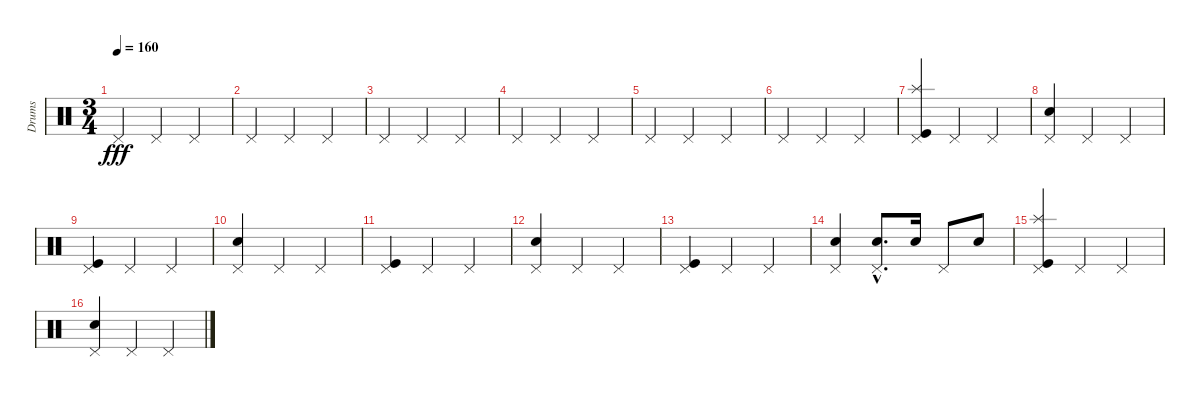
\track ("Drums" "Drums") {instrument percussion}
\staff {score}
\articulation defaults
\ts (3 4)
\tempo 160
\clef neutral
\ks c "Pedal Hi-Hat (hit)".4{dy fff} "Pedal Hi-Hat (hit)".4 "Pedal Hi-Hat (hit)".4
|
"Pedal Hi-Hat (hit)".4 "Pedal Hi-Hat (hit)".4 "Pedal Hi-Hat (hit)".4 |
"Pedal Hi-Hat (hit)".4 "Pedal Hi-Hat (hit)".4 "Pedal Hi-Hat (hit)".4 |
"Pedal Hi-Hat (hit)".4 "Pedal Hi-Hat (hit)".4 "Pedal Hi-Hat (hit)".4 |
"Pedal Hi-Hat (hit)".4 "Pedal Hi-Hat (hit)".4 "Pedal Hi-Hat (hit)".4 |
"Pedal Hi-Hat (hit)".4 "Pedal Hi-Hat (hit)".4 "Pedal Hi-Hat (hit)".4 |
("Splash (hit)" "Kick (hit)" "Pedal Hi-Hat (hit)").4 "Pedal Hi-Hat (hit)".4 "Pedal Hi-Hat (hit)".4 |
("Electric Snare (hit)" "Pedal Hi-Hat (hit)").4 "Pedal Hi-Hat (hit)".4 "Pedal Hi-Hat (hit)".4 |
("Kick (hit)" "Pedal Hi-Hat (hit)").4 "Pedal Hi-Hat (hit)".4 "Pedal Hi-Hat (hit)".4 |
("Electric Snare (hit)" "Pedal Hi-Hat (hit)").4 "Pedal Hi-Hat (hit)".4 "Pedal Hi-Hat (hit)".4 |
("Kick (hit)" "Pedal Hi-Hat (hit)").4 "Pedal Hi-Hat (hit)".4 "Pedal Hi-Hat (hit)".4 |
("Electric Snare (hit)" "Pedal Hi-Hat (hit)").4 "Pedal Hi-Hat (hit)".4 "Pedal Hi-Hat (hit)".4 |
("Kick (hit)" "Pedal Hi-Hat (hit)").4 "Pedal Hi-Hat (hit)".4 "Pedal Hi-Hat (hit)".4 |
("Electric Snare (hit)" "Pedal Hi-Hat (hit)").4 ("Electric Snare (hit)"{hac} "Pedal Hi-Hat (hit)"{hac}).8{d} "Electric Snare (hit)".16 "Pedal Hi-Hat (hit)".8 "Electric Snare (hit)".8 |
("Splash (hit)" "Kick (hit)" "Pedal Hi-Hat (hit)").4 "Pedal Hi-Hat (hit)".4 "Pedal Hi-Hat (hit)".4 |
("Electric Snare (hit)" "Pedal Hi-Hat (hit)").4 "Pedal Hi-Hat (hit)".4 "Pedal Hi-Hat (hit)".4
